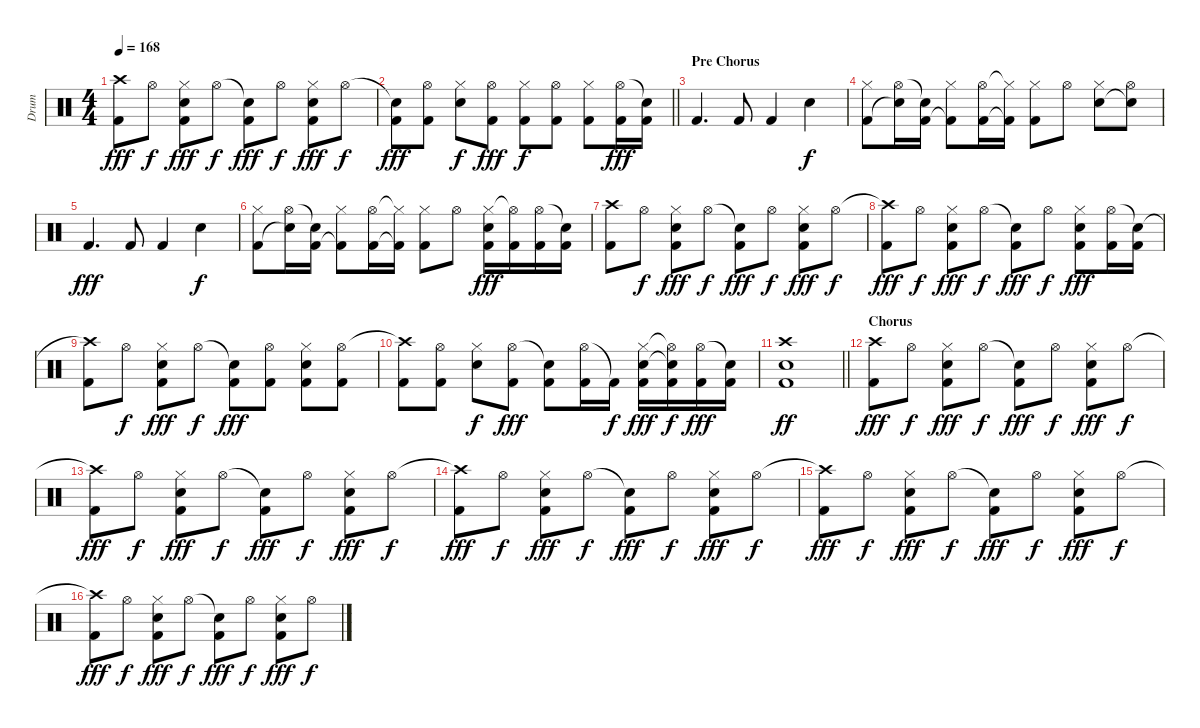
\track ("Drum" "Drum") {instrument percussion}
\staff {score}
\articulation defaults
\ts (4 4)
\tempo 168
\clef neutral
\ks c
("Crash high (hit)"{t} "Kick (hit) 2").8{dy fff} "Hi-Hat (open)".8{dy f} ("Hi-Hat (closed)" "Snare (hit) 2" "Kick (hit) 2").8{dy fff} "Hi-Hat (open)".8{dy f} ("Snare (hit)"{t} "Kick (hit) 2").8{dy fff} "Hi-Hat (open)".8{dy f} ("Hi-Hat (closed)" "Snare (hit) 2" "Kick (hit) 2").8{dy fff} "Hi-Hat (open)".8{dy f} |
\barLineRight lightlight
("Snare (hit)"{t} "Kick (hit) 2").8{dy fff} ("Hi-Hat (open)" "Kick (hit) 2").8 ("Hi-Hat (closed)" "Snare (hit) 2").8{dy f} ("Hi-Hat (open)" "Kick (hit) 2").8{dy fff} ("Hi-Hat (closed)" "Kick (hit) 2").8{dy f} ("Hi-Hat (open)" "Kick (hit) 2").8 ("Hi-Hat (closed)" "Kick (hit) 2").8 ("Hi-Hat (open)" "Kick (hit) 2").16{dy fff} ("Snare (hit)"{t} "Kick (hit) 2").16 |
\section ("" "Pre Chorus")
"Kick (hit) 2".4{d} "Kick (hit) 2".8 "Kick (hit) 2".4 "Snare (hit) 2".4{dy f} |
("Hi-Hat (closed)" "Kick (hit) 2").8 ("Hi-Hat (open)" "Snare (hit)"{t}).16 ("Snare (hit)"{t} "Kick (hit) 2").16 ("Hi-Hat (closed)" "Kick (hit) 2"{t}).8 ("Hi-Hat (open)" "Kick (hit) 2").16 ("Hi-Hat (closed)"{t} "Kick (hit) 2"{t}).16 ("Hi-Hat (closed)" "Kick (hit) 2").8 "Hi-Hat (open)".8 ("Hi-Hat (closed)" "Snare (hit) 2").8 ("Hi-Hat (open)" "Snare (hit)"{t}).8 |
"Kick (hit) 2".4{d dy fff} "Kick (hit) 2".8 "Kick (hit) 2".4 "Snare (hit) 2".4{dy f} |
("Hi-Hat (closed)" "Kick (hit) 2").8 ("Hi-Hat (open)" "Snare (hit)"{t}).16 ("Snare (hit)"{t} "Kick (hit) 2").16 ("Hi-Hat (closed)" "Kick (hit) 2"{t}).8 ("Hi-Hat (open)" "Kick (hit) 2").16 ("Hi-Hat (closed)"{t} "Kick (hit) 2"{t}).16 ("Hi-Hat (closed)" "Kick (hit) 2").8 "Hi-Hat (open)".8 ("Hi-Hat (closed)" "Snare (hit) 2" "Kick (hit) 2").16{dy fff} ("Hi-Hat (open)"{t} "Kick (hit) 2").16 ("Hi-Hat (open)" "Kick (hit) 2").16 ("Snare (hit)"{t} "Kick (hit) 2").16 |
("Crash high (hit)" "Kick (hit) 2").8 "Hi-Hat (open)".8{dy f} ("Hi-Hat (closed)" "Snare (hit) 2" "Kick (hit) 2").8{dy fff} "Hi-Hat (open)".8{dy f} ("Snare (hit)"{t} "Kick (hit) 2").8{dy fff} "Hi-Hat (open)".8{dy f} ("Hi-Hat (closed)" "Snare (hit) 2" "Kick (hit) 2").8{dy fff} "Hi-Hat (open)".8{dy f} |
("Crash high (hit)"{t} "Kick (hit) 2").8{dy fff} "Hi-Hat (open)".8{dy f} ("Hi-Hat (closed)" "Snare (hit) 2" "Kick (hit) 2").8{dy fff} "Hi-Hat (open)".8{dy f} ("Snare (hit)"{t} "Kick (hit) 2").8{dy fff} "Hi-Hat (open)".8{dy f} ("Hi-Hat (closed)" "Snare (hit) 2" "Kick (hit) 2").8{dy fff} ("Hi-Hat (open)" "Kick (hit) 2").16 ("Snare (hit)"{t} "Kick (hit) 2").16 |
("Crash high (hit)"{t} "Kick (hit) 2").8 "Hi-Hat (open)".8{dy f} ("Hi-Hat (closed)" "Snare (hit) 2" "Kick (hit) 2").8{dy fff} "Hi-Hat (open)".8{dy f} ("Snare (hit)"{t} "Kick (hit) 2").8{dy fff} ("Hi-Hat (open)" "Kick (hit) 2").8 ("Hi-Hat (closed)" "Snare (hit) 2" "Kick (hit) 2").8 ("Hi-Hat (open)" "Kick (hit) 2").8 |
("Crash high (hit)"{t} "Kick (hit) 2").8 ("Hi-Hat (open)" "Kick (hit) 2").8 ("Hi-Hat (closed)" "Snare (hit) 2").8{dy f} ("Hi-Hat (open)" "Kick (hit) 2").8{dy fff} ("Snare (hit)"{t} "Kick (hit) 2").8 ("Hi-Hat (open)" "Kick (hit) 2").16 "Kick (hit) 2"{t}.16{dy f} ("Hi-Hat (closed)" "Snare (hit) 2" "Kick (hit) 2").16{dy fff} ("Hi-Hat (open)"{t} "Snare (hit)"{t} "Kick (hit) 2").16{dy f} ("Hi-Hat (open)" "Kick (hit) 2").16{dy fff} ("Snare (hit)"{t} "Kick (hit) 2").16 |
\barLineRight lightlight
("Crash high (hit)" "Snare (hit) 2" "Kick (hit) 2").1{dy ff} |
\section ("" "Chorus")
("Crash high (hit)" "Kick (hit) 2").8{dy fff} "Hi-Hat (open)".8{dy f} ("Hi-Hat (closed)" "Snare (hit) 2" "Kick (hit) 2").8{dy fff} "Hi-Hat (open)".8{dy f} ("Snare (hit)"{t} "Kick (hit) 2").8{dy fff} "Hi-Hat (open)".8{dy f} ("Hi-Hat (closed)" "Snare (hit) 2" "Kick (hit) 2").8{dy fff} "Hi-Hat (open)".8{dy f} |
("Crash high (hit)"{t} "Kick (hit) 2").8{dy fff} "Hi-Hat (open)".8{dy f} ("Hi-Hat (closed)" "Snare (hit) 2" "Kick (hit) 2").8{dy fff} "Hi-Hat (open)".8{dy f} ("Snare (hit)"{t} "Kick (hit) 2").8{dy fff} "Hi-Hat (open)".8{dy f} ("Hi-Hat (closed)" "Snare (hit) 2" "Kick (hit) 2").8{dy fff} "Hi-Hat (open)".8{dy f} |
("Crash high (hit)"{t} "Kick (hit) 2").8{dy fff} "Hi-Hat (open)".8{dy f} ("Hi-Hat (closed)" "Snare (hit) 2" "Kick (hit) 2").8{dy fff} "Hi-Hat (open)".8{dy f} ("Snare (hit)"{t} "Kick (hit) 2").8{dy fff} "Hi-Hat (open)".8{dy f} ("Hi-Hat (closed)" "Snare (hit) 2" "Kick (hit) 2").8{dy fff} "Hi-Hat (open)".8{dy f} |
("Crash high (hit)"{t} "Kick (hit) 2").8{dy fff} "Hi-Hat (open)".8{dy f} ("Hi-Hat (closed)" "Snare (hit) 2" "Kick (hit) 2").8{dy fff} "Hi-Hat (open)".8{dy f} ("Snare (hit)"{t} "Kick (hit) 2").8{dy fff} "Hi-Hat (open)".8{dy f} ("Hi-Hat (closed)" "Snare (hit) 2" "Kick (hit) 2").8{dy fff} "Hi-Hat (open)".8{dy f} |
("Crash high (hit)"{t} "Kick (hit) 2").8{dy fff} "Hi-Hat (open)".8{dy f} ("Hi-Hat (closed)" "Snare (hit) 2" "Kick (hit) 2").8{dy fff} "Hi-Hat (open)".8{dy f} ("Snare (hit)"{t} "Kick (hit) 2").8{dy fff} "Hi-Hat (open)".8{dy f} ("Hi-Hat (closed)" "Snare (hit) 2" "Kick (hit) 2").8{dy fff} "Hi-Hat (open)".8{dy f}
